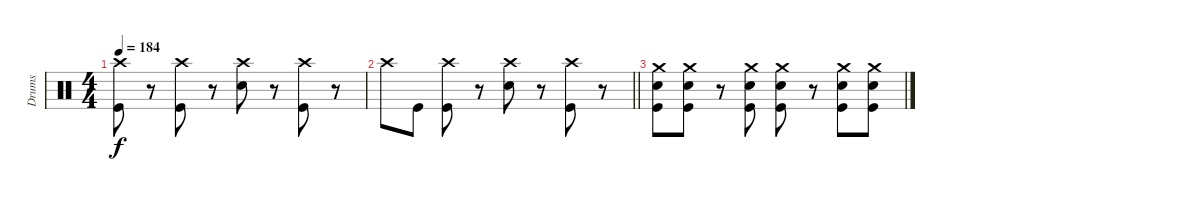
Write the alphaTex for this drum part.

\track ("Drums" "Drums") {instrument percussion}
\staff {score}
\articulation defaults
\ts (4 4)
\tempo 184
\clef neutral
\ks c
("Crash high (hit)" "Kick (hit)").8{dy f} r.8 ("Crash high (hit)" "Kick (hit)").8 r.8 ("Crash high (hit)" "Electric Snare (hit)").8 r.8 ("Crash high (hit)" "Kick (hit)").8 r.8 |
\barLineRight lightlight "Crash high (hit)".8 "Kick (hit)".8
("Crash high (hit)" "Kick (hit)").8 r.8 ("Crash high (hit)" "Electric Snare (hit)").8 r.8 ("Crash high (hit)" "Kick (hit)").8 r.8 |
("Crash medium (hit)" "Electric Snare (hit)" "Kick (hit)").8 ("Crash medium (hit)" "Electric Snare (hit)" "Kick (hit)").8 r.8 ("Crash medium (hit)" "Electric Snare (hit)" "Kick (hit)").8 ("Crash medium (hit)" "Electric Snare (hit)" "Kick (hit)").8 r.8 ("Crash medium (hit)" "Electric Snare (hit)" "Kick (hit)").8 ("Crash medium (hit)" "Electric Snare (hit)" "Kick (hit)").8
